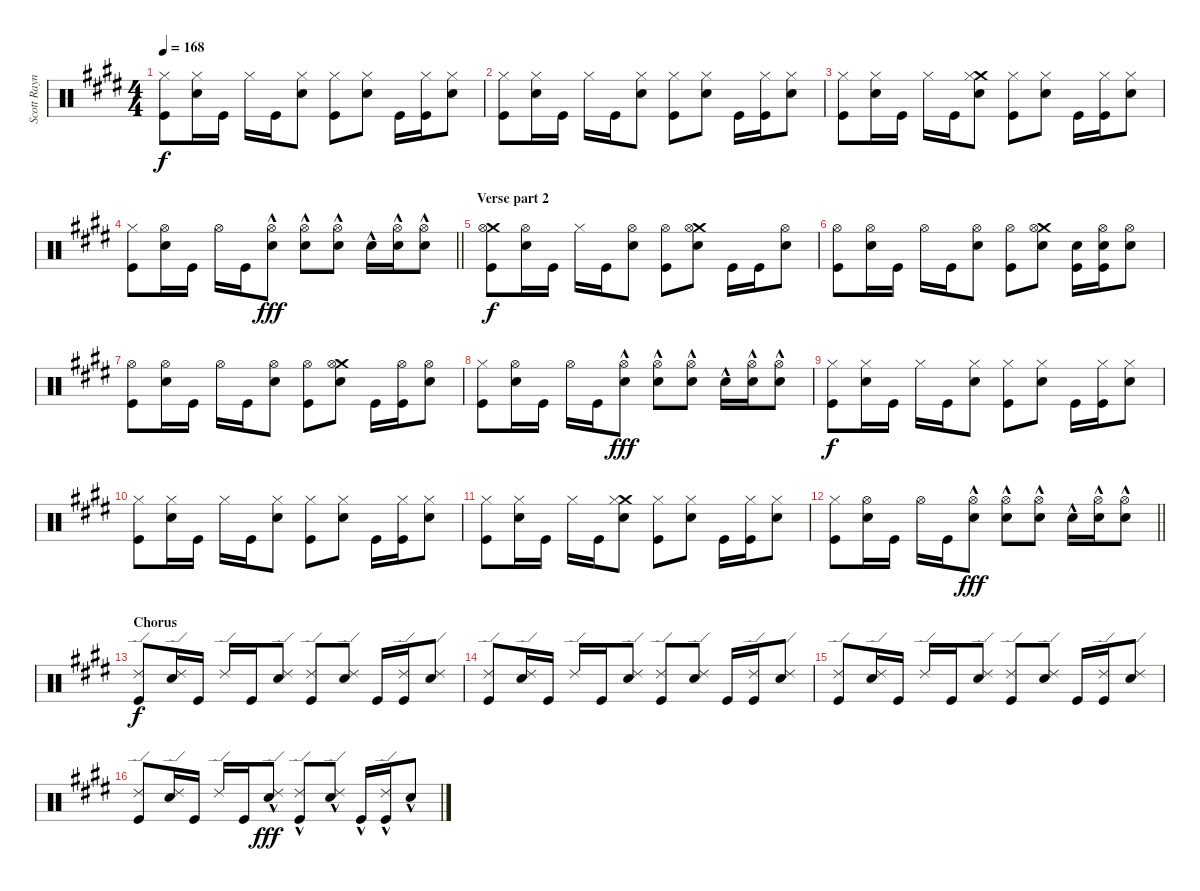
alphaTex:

\track ("Scott Raynor" "Scott Rayn") {instrument percussion}
\staff {score}
\articulation defaults
\ts (4 4)
\tempo 168
\clef neutral
\ks e
("Hi-Hat (closed)" "Kick (hit)").8{dy f} ("Hi-Hat (closed)" "Electric Snare (hit)").16 "Kick (hit)".16 "Hi-Hat (closed)".16 "Kick (hit)".16 ("Hi-Hat (closed)" "Electric Snare (hit)").8 ("Hi-Hat (closed)" "Kick (hit)").8 ("Hi-Hat (closed)" "Electric Snare (hit)").8 "Kick (hit)".16 ("Hi-Hat (closed)" "Kick (hit)").16 ("Hi-Hat (closed)" "Electric Snare (hit)").8 |
("Hi-Hat (closed)" "Kick (hit)").8 ("Hi-Hat (closed)" "Electric Snare (hit)").16 "Kick (hit)".16 "Hi-Hat (closed)".16 "Kick (hit)".16 ("Hi-Hat (closed)" "Electric Snare (hit)").8 ("Hi-Hat (closed)" "Kick (hit)").8 ("Hi-Hat (closed)" "Electric Snare (hit)").8 "Kick (hit)".16 ("Hi-Hat (closed)" "Kick (hit)").16 ("Hi-Hat (closed)" "Electric Snare (hit)").8 |
("Hi-Hat (closed)" "Kick (hit)").8 ("Hi-Hat (closed)" "Electric Snare (hit)").16 "Kick (hit)".16 "Hi-Hat (closed)".16 "Kick (hit)".16 ("Crash medium (hit)" "Hi-Hat (closed)" "Electric Snare (hit)").8 ("Hi-Hat (closed)" "Kick (hit)").8 ("Hi-Hat (closed)" "Electric Snare (hit)").8 "Kick (hit)".16 ("Hi-Hat (closed)" "Kick (hit)").16 ("Hi-Hat (closed)" "Electric Snare (hit)").8 |
\barLineRight lightlight
("Hi-Hat (closed)" "Kick (hit)").8 ("Hi-Hat (open)" "Electric Snare (hit)").16 "Kick (hit)".16 "Hi-Hat (open)".16 "Kick (hit)".16 ("Hi-Hat (open)" "Electric Snare (hit)"{hac}).8{dy fff} ("Hi-Hat (open)" "Electric Snare (hit)"{hac}).8 ("Hi-Hat (open)" "Electric Snare (hit)"{hac}).8 "Electric Snare (hit)"{hac}.16 ("Hi-Hat (open)" "Electric Snare (hit)"{hac}).16 ("Hi-Hat (open)" "Electric Snare (hit)"{hac}).8 |
\section ("" "Verse part 2")
("Crash medium (hit)" "Hi-Hat (open)" "Kick (hit)").8{dy f} ("Hi-Hat (open)" "Electric Snare (hit)").16 "Kick (hit)".16 "Hi-Hat (closed)".16 "Kick (hit)".16 ("Hi-Hat (open)" "Electric Snare (hit)").8 ("Hi-Hat (open)" "Kick (hit)").8 ("Crash medium (hit)" "Hi-Hat (open)" "Electric Snare (hit)").8 "Kick (hit)".16 "Kick (hit)".16 ("Hi-Hat (open)" "Electric Snare (hit)").8 |
("Hi-Hat (open)" "Kick (hit)").8 ("Hi-Hat (open)" "Electric Snare (hit)").16 "Kick (hit)".16 "Hi-Hat (open)".16 "Kick (hit)".16 ("Hi-Hat (open)" "Electric Snare (hit)").8 ("Hi-Hat (open)" "Kick (hit)").8 ("Crash medium (hit)" "Hi-Hat (open)" "Electric Snare (hit)").8 ("Electric Snare (hit)" "Kick (hit)").16 ("Electric Snare (hit)" "Hi-Hat (open)" "Kick (hit)").16 ("Hi-Hat (open)" "Electric Snare (hit)").8 |
("Hi-Hat (open)" "Kick (hit)").8 ("Hi-Hat (open)" "Electric Snare (hit)").16 "Kick (hit)".16 "Hi-Hat (open)".16 "Kick (hit)".16 ("Hi-Hat (open)" "Electric Snare (hit)").8 ("Hi-Hat (open)" "Kick (hit)").8 ("Crash medium (hit)" "Hi-Hat (open)" "Electric Snare (hit)").8 "Kick (hit)".16 ("Hi-Hat (open)" "Kick (hit)").16 ("Hi-Hat (open)" "Electric Snare (hit)").8 |
("Hi-Hat (closed)" "Kick (hit)").8 ("Hi-Hat (open)" "Electric Snare (hit)").16 "Kick (hit)".16 "Hi-Hat (open)".16 "Kick (hit)".16 ("Hi-Hat (open)" "Electric Snare (hit)"{hac}).8{dy fff} ("Hi-Hat (open)" "Electric Snare (hit)"{hac}).8 ("Hi-Hat (open)" "Electric Snare (hit)"{hac}).8 "Electric Snare (hit)"{hac}.16 ("Hi-Hat (open)" "Electric Snare (hit)"{hac}).16 ("Hi-Hat (open)" "Electric Snare (hit)"{hac}).8 |
("Hi-Hat (closed)" "Kick (hit)").8{dy f} ("Hi-Hat (closed)" "Electric Snare (hit)").16 "Kick (hit)".16 "Hi-Hat (closed)".16 "Kick (hit)".16 ("Hi-Hat (closed)" "Electric Snare (hit)").8 ("Hi-Hat (closed)" "Kick (hit)").8 ("Hi-Hat (closed)" "Electric Snare (hit)").8 "Kick (hit)".16 ("Hi-Hat (closed)" "Kick (hit)").16 ("Hi-Hat (closed)" "Electric Snare (hit)").8 |
("Hi-Hat (closed)" "Kick (hit)").8 ("Hi-Hat (closed)" "Electric Snare (hit)").16 "Kick (hit)".16 "Hi-Hat (closed)".16 "Kick (hit)".16 ("Hi-Hat (closed)" "Electric Snare (hit)").8 ("Hi-Hat (closed)" "Kick (hit)").8 ("Hi-Hat (closed)" "Electric Snare (hit)").8 "Kick (hit)".16 ("Hi-Hat (closed)" "Kick (hit)").16 ("Hi-Hat (closed)" "Electric Snare (hit)").8 |
("Hi-Hat (closed)" "Kick (hit)").8 ("Hi-Hat (closed)" "Electric Snare (hit)").16 "Kick (hit)".16 "Hi-Hat (closed)".16 "Kick (hit)".16 ("Crash medium (hit)" "Hi-Hat (closed)" "Electric Snare (hit)").8 ("Hi-Hat (closed)" "Kick (hit)").8 ("Hi-Hat (closed)" "Electric Snare (hit)").8 "Kick (hit)".16 ("Hi-Hat (closed)" "Kick (hit)").16 ("Hi-Hat (closed)" "Electric Snare (hit)").8 |
\barLineRight lightlight
("Hi-Hat (closed)" "Kick (hit)").8 ("Hi-Hat (open)" "Electric Snare (hit)").16 "Kick (hit)".16 "Hi-Hat (open)".16 "Kick (hit)".16 ("Hi-Hat (open)" "Electric Snare (hit)"{hac}).8{dy fff} ("Hi-Hat (open)" "Electric Snare (hit)"{hac}).8 ("Hi-Hat (open)" "Electric Snare (hit)"{hac}).8 "Electric Snare (hit)"{hac}.16 ("Hi-Hat (open)" "Electric Snare (hit)"{hac}).16 ("Hi-Hat (open)" "Electric Snare (hit)"{hac}).8 |
\section ("" "Chorus")
("Ride (edge) 2" "Kick (hit)").8{dy f} ("Ride (edge) 2" "Electric Snare (hit)").16 "Kick (hit)".16 "Ride (edge) 2".16 "Kick (hit)".16 ("Ride (edge) 2" "Electric Snare (hit)").8 ("Ride (edge) 2" "Kick (hit)").8 ("Ride (edge) 2" "Electric Snare (hit)").8 "Kick (hit)".16 ("Ride (edge) 2" "Kick (hit)").16 ("Ride (edge) 2" "Electric Snare (hit)").8 |
("Ride (edge) 2" "Kick (hit)").8 ("Ride (edge) 2" "Electric Snare (hit)").16 "Kick (hit)".16 "Ride (edge) 2".16 "Kick (hit)".16 ("Ride (edge) 2" "Electric Snare (hit)").8 ("Ride (edge) 2" "Kick (hit)").8 ("Ride (edge) 2" "Electric Snare (hit)").8 "Kick (hit)".16 ("Ride (edge) 2" "Kick (hit)").16 ("Ride (edge) 2" "Electric Snare (hit)").8 |
("Ride (edge) 2" "Kick (hit)").8 ("Ride (edge) 2" "Electric Snare (hit)").16 "Kick (hit)".16 "Ride (edge) 2".16 "Kick (hit)".16 ("Ride (edge) 2" "Electric Snare (hit)").8 ("Ride (edge) 2" "Kick (hit)").8 ("Ride (edge) 2" "Electric Snare (hit)").8 "Kick (hit)".16 ("Ride (edge) 2" "Kick (hit)").16 ("Ride (edge) 2" "Electric Snare (hit)").8 |
("Ride (edge) 2" "Kick (hit)").8 ("Ride (edge) 2" "Electric Snare (hit)").16 "Kick (hit)".16 "Ride (edge) 2".16 "Kick (hit)".16 ("Ride (edge) 2" "Electric Snare (hit)"{hac}).8{dy fff} ("Ride (edge) 2" "Kick (hit)"{hac}).8 ("Ride (edge) 2" "Electric Snare (hit)"{hac}).8 "Kick (hit)"{hac}.16 ("Ride (edge) 2" "Kick (hit)"{hac}).16 "Electric Snare (hit)"{hac}.8
